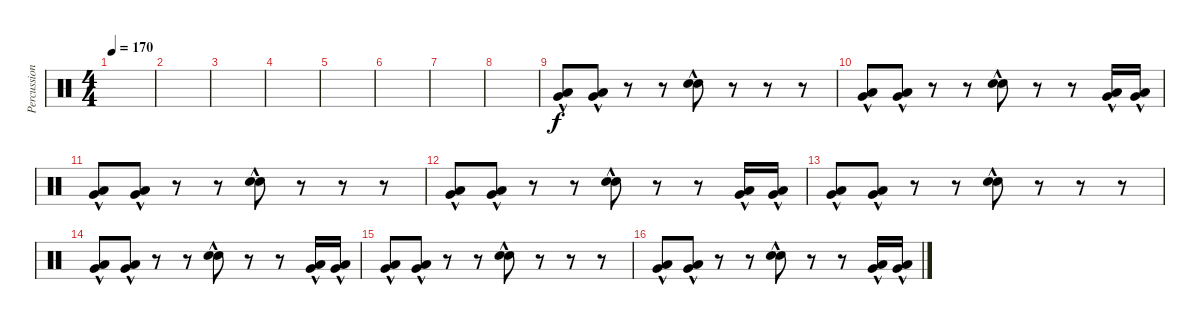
\track ("Percussion" "Percussion") {instrument percussion}
\staff {score}
\articulation defaults
\ts (4 4)
\tempo 170
\clef neutral
\ks c
|
|
|
|
|
|
|
|
("Low Floor Tom (hit)"{hac} "Very Low Tom (hit)"{hac}).8 ("Low Floor Tom (hit)"{hac} "Very Low Tom (hit)"{hac}).8 r.8 r.8 ("Snare (hit) 2"{hac} "Electric Snare (hit)"{hac}).8 r.8 r.8 r.8 |
("Low Floor Tom (hit)"{hac} "Very Low Tom (hit)"{hac}).8 ("Low Floor Tom (hit)"{hac} "Very Low Tom (hit)"{hac}).8 r.8 r.8 ("Snare (hit) 2"{hac} "Electric Snare (hit)"{hac}).8 r.8 r.8 ("Low Floor Tom (hit)"{hac} "Very Low Tom (hit)"{hac}).16 ("Very Low Tom (hit)"{hac} "Low Floor Tom (hit)"{hac}).16 |
("Low Floor Tom (hit)"{hac} "Very Low Tom (hit)"{hac}).8 ("Low Floor Tom (hit)"{hac} "Very Low Tom (hit)"{hac}).8 r.8 r.8 ("Snare (hit) 2"{hac} "Electric Snare (hit)"{hac}).8 r.8 r.8 r.8 |
("Low Floor Tom (hit)"{hac} "Very Low Tom (hit)"{hac}).8 ("Low Floor Tom (hit)"{hac} "Very Low Tom (hit)"{hac}).8 r.8 r.8 ("Snare (hit) 2"{hac} "Electric Snare (hit)"{hac}).8 r.8 r.8 ("Low Floor Tom (hit)"{hac} "Very Low Tom (hit)"{hac}).16 ("Very Low Tom (hit)"{hac} "Low Floor Tom (hit)"{hac}).16 |
("Low Floor Tom (hit)"{hac} "Very Low Tom (hit)"{hac}).8 ("Low Floor Tom (hit)"{hac} "Very Low Tom (hit)"{hac}).8 r.8 r.8 ("Snare (hit) 2"{hac} "Electric Snare (hit)"{hac}).8 r.8 r.8 r.8 |
("Low Floor Tom (hit)"{hac} "Very Low Tom (hit)"{hac}).8 ("Low Floor Tom (hit)"{hac} "Very Low Tom (hit)"{hac}).8 r.8 r.8 ("Snare (hit) 2"{hac} "Electric Snare (hit)"{hac}).8 r.8 r.8 ("Low Floor Tom (hit)"{hac} "Very Low Tom (hit)"{hac}).16 ("Very Low Tom (hit)"{hac} "Low Floor Tom (hit)"{hac}).16 |
("Low Floor Tom (hit)"{hac} "Very Low Tom (hit)"{hac}).8 ("Low Floor Tom (hit)"{hac} "Very Low Tom (hit)"{hac}).8 r.8 r.8 ("Snare (hit) 2"{hac} "Electric Snare (hit)"{hac}).8 r.8 r.8 r.8 |
("Low Floor Tom (hit)"{hac} "Very Low Tom (hit)"{hac}).8 ("Low Floor Tom (hit)"{hac} "Very Low Tom (hit)"{hac}).8 r.8 r.8 ("Snare (hit) 2"{hac} "Electric Snare (hit)"{hac}).8 r.8 r.8 ("Low Floor Tom (hit)"{hac} "Very Low Tom (hit)"{hac}).16 ("Very Low Tom (hit)"{hac} "Low Floor Tom (hit)"{hac}).16
